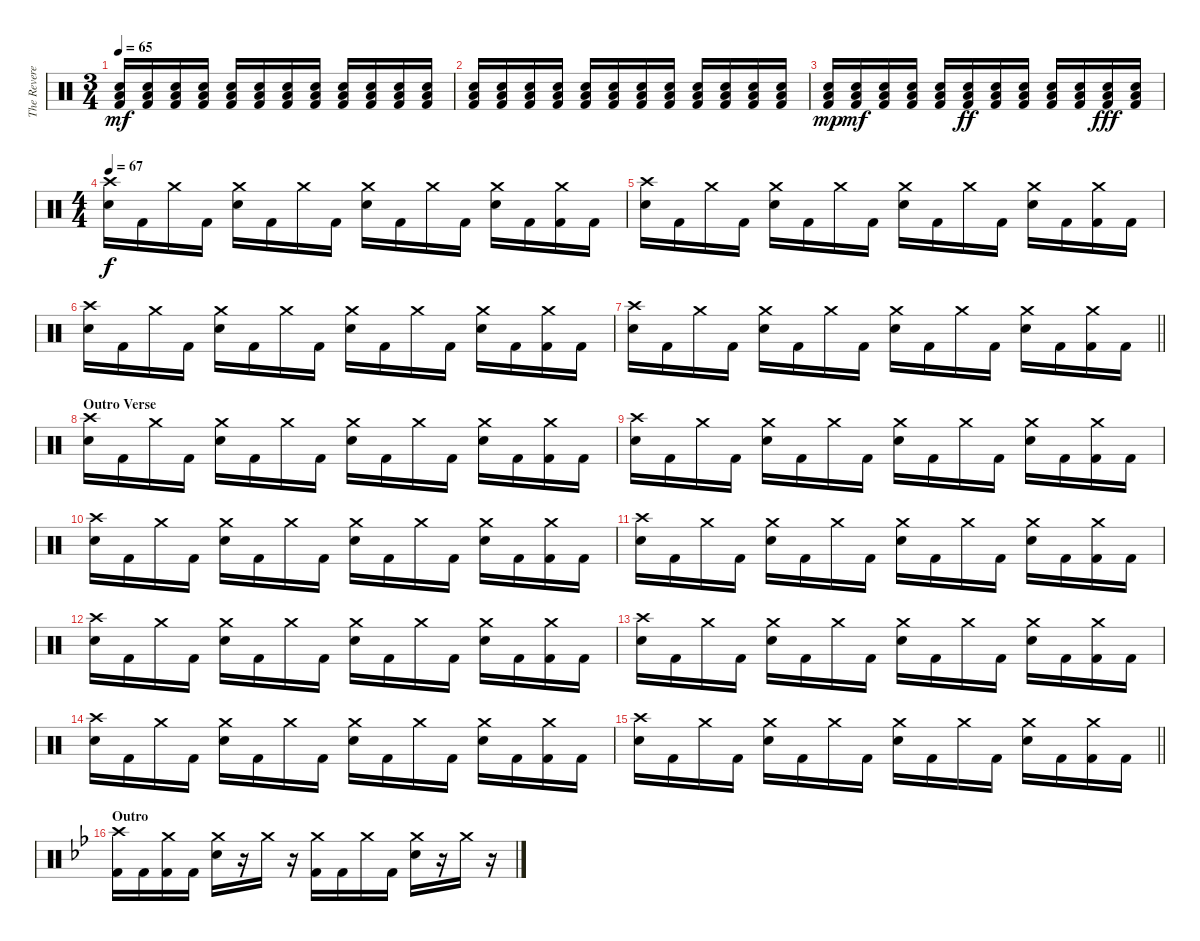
\track ("The Reverend" "The Revere") {instrument percussion}
\staff {score}
\articulation defaults
\ts (3 4)
\tempo 65
\clef neutral
\ks c
("Kick (hit) 2" "Electric Snare (hit)" "Low Tom (hit)").16{dy mf} ("Kick (hit) 2" "Electric Snare (hit)" "Low Tom (hit)").16 ("Kick (hit) 2" "Electric Snare (hit)" "Low Tom (hit)").16 ("Kick (hit) 2" "Electric Snare (hit)" "Low Tom (hit)").16 ("Kick (hit) 2" "Electric Snare (hit)" "Low Tom (hit)").16 ("Kick (hit) 2" "Electric Snare (hit)" "Low Tom (hit)").16 ("Kick (hit) 2" "Electric Snare (hit)" "Low Tom (hit)").16 ("Kick (hit) 2" "Electric Snare (hit)" "Low Tom (hit)").16 ("Kick (hit) 2" "Electric Snare (hit)" "Low Tom (hit)").16 ("Kick (hit) 2" "Electric Snare (hit)" "Low Tom (hit)").16 ("Kick (hit) 2" "Electric Snare (hit)" "Low Tom (hit)").16 ("Kick (hit) 2" "Electric Snare (hit)" "Low Tom (hit)").16 |
("Kick (hit) 2" "Electric Snare (hit)" "Low Tom (hit)").16 ("Kick (hit) 2" "Electric Snare (hit)" "Low Tom (hit)").16 ("Kick (hit) 2" "Electric Snare (hit)" "Low Tom (hit)").16 ("Kick (hit) 2" "Electric Snare (hit)" "Low Tom (hit)").16 ("Kick (hit) 2" "Electric Snare (hit)" "Low Tom (hit)").16 ("Kick (hit) 2" "Electric Snare (hit)" "Low Tom (hit)").16 ("Kick (hit) 2" "Electric Snare (hit)" "Low Tom (hit)").16 ("Kick (hit) 2" "Electric Snare (hit)" "Low Tom (hit)").16 ("Kick (hit) 2" "Electric Snare (hit)" "Low Tom (hit)").16 ("Kick (hit) 2" "Electric Snare (hit)" "Low Tom (hit)").16 ("Kick (hit) 2" "Electric Snare (hit)" "Low Tom (hit)").16 ("Kick (hit) 2" "Electric Snare (hit)" "Low Tom (hit)").16 |
("Kick (hit) 2" "Electric Snare (hit)" "Low Tom (hit)").16{dy mp} ("Kick (hit) 2" "Electric Snare (hit)" "Low Tom (hit)").16{dy mf} ("Kick (hit) 2" "Electric Snare (hit)" "Low Tom (hit)").16 ("Kick (hit) 2" "Electric Snare (hit)" "Low Tom (hit)").16 ("Kick (hit) 2" "Electric Snare (hit)" "Low Tom (hit)").16 ("Kick (hit) 2" "Electric Snare (hit)" "Low Tom (hit)").16{dy ff} ("Kick (hit) 2" "Electric Snare (hit)" "Low Tom (hit)").16 ("Kick (hit) 2" "Electric Snare (hit)" "Low Tom (hit)").16 ("Kick (hit) 2" "Electric Snare (hit)" "Low Tom (hit)").16 ("Kick (hit) 2" "Electric Snare (hit)" "Low Tom (hit)").16 ("Kick (hit) 2" "Electric Snare (hit)" "Low Tom (hit)").16{dy fff} ("Kick (hit) 2" "Electric Snare (hit)" "Low Tom (hit)").16 |
\ts (4 4)
\tempo 67
("Crash high (hit)" "Electric Snare (hit)").16{dy f} "Kick (hit) 2".16 "Crash medium (hit)".16 "Kick (hit) 2".16 ("Crash medium (hit)" "Electric Snare (hit)").16 "Kick (hit) 2".16 "Crash medium (hit)".16 "Kick (hit) 2".16 ("Crash medium (hit)" "Electric Snare (hit)").16 "Kick (hit) 2".16 "Crash medium (hit)".16 "Kick (hit) 2".16 ("Crash medium (hit)" "Electric Snare (hit)").16 "Kick (hit) 2".16 ("Crash medium (hit)" "Kick (hit) 2").16 "Kick (hit) 2".16 |
("Crash high (hit)" "Electric Snare (hit)").16 "Kick (hit) 2".16 "Crash medium (hit)".16 "Kick (hit) 2".16 ("Crash medium (hit)" "Electric Snare (hit)").16 "Kick (hit) 2".16 "Crash medium (hit)".16 "Kick (hit) 2".16 ("Crash medium (hit)" "Electric Snare (hit)").16 "Kick (hit) 2".16 "Crash medium (hit)".16 "Kick (hit) 2".16 ("Crash medium (hit)" "Electric Snare (hit)").16 "Kick (hit) 2".16 ("Crash medium (hit)" "Kick (hit) 2").16 "Kick (hit) 2".16 |
("Crash high (hit)" "Electric Snare (hit)").16 "Kick (hit) 2".16 "Crash medium (hit)".16 "Kick (hit) 2".16 ("Crash medium (hit)" "Electric Snare (hit)").16 "Kick (hit) 2".16 "Crash medium (hit)".16 "Kick (hit) 2".16 ("Crash medium (hit)" "Electric Snare (hit)").16 "Kick (hit) 2".16 "Crash medium (hit)".16 "Kick (hit) 2".16 ("Crash medium (hit)" "Electric Snare (hit)").16 "Kick (hit) 2".16 ("Crash medium (hit)" "Kick (hit) 2").16 "Kick (hit) 2".16 |
\barLineRight lightlight
("Crash high (hit)" "Electric Snare (hit)").16 "Kick (hit) 2".16 "Crash medium (hit)".16 "Kick (hit) 2".16 ("Crash medium (hit)" "Electric Snare (hit)").16 "Kick (hit) 2".16 "Crash medium (hit)".16 "Kick (hit) 2".16 ("Crash medium (hit)" "Electric Snare (hit)").16 "Kick (hit) 2".16 "Crash medium (hit)".16 "Kick (hit) 2".16 ("Crash medium (hit)" "Electric Snare (hit)").16 "Kick (hit) 2".16 ("Crash medium (hit)" "Kick (hit) 2").16 "Kick (hit) 2".16 |
\section ("" "Outro Verse")
("Crash high (hit)" "Electric Snare (hit)").16 "Kick (hit) 2".16 "Crash medium (hit)".16 "Kick (hit) 2".16 ("Crash medium (hit)" "Electric Snare (hit)").16 "Kick (hit) 2".16 "Crash medium (hit)".16 "Kick (hit) 2".16 ("Crash medium (hit)" "Electric Snare (hit)").16 "Kick (hit) 2".16 "Crash medium (hit)".16 "Kick (hit) 2".16 ("Crash medium (hit)" "Electric Snare (hit)").16 "Kick (hit) 2".16 ("Crash medium (hit)" "Kick (hit) 2").16 "Kick (hit) 2".16 |
("Crash high (hit)" "Electric Snare (hit)").16 "Kick (hit) 2".16 "Crash medium (hit)".16 "Kick (hit) 2".16 ("Crash medium (hit)" "Electric Snare (hit)").16 "Kick (hit) 2".16 "Crash medium (hit)".16 "Kick (hit) 2".16 ("Crash medium (hit)" "Electric Snare (hit)").16 "Kick (hit) 2".16 "Crash medium (hit)".16 "Kick (hit) 2".16 ("Crash medium (hit)" "Electric Snare (hit)").16 "Kick (hit) 2".16 ("Crash medium (hit)" "Kick (hit) 2").16 "Kick (hit) 2".16 |
("Crash high (hit)" "Electric Snare (hit)").16 "Kick (hit) 2".16 "Crash medium (hit)".16 "Kick (hit) 2".16 ("Crash medium (hit)" "Electric Snare (hit)").16 "Kick (hit) 2".16 "Crash medium (hit)".16 "Kick (hit) 2".16 ("Crash medium (hit)" "Electric Snare (hit)").16 "Kick (hit) 2".16 "Crash medium (hit)".16 "Kick (hit) 2".16 ("Crash medium (hit)" "Electric Snare (hit)").16 "Kick (hit) 2".16 ("Crash medium (hit)" "Kick (hit) 2").16 "Kick (hit) 2".16 |
("Crash high (hit)" "Electric Snare (hit)").16 "Kick (hit) 2".16 "Crash medium (hit)".16 "Kick (hit) 2".16 ("Crash medium (hit)" "Electric Snare (hit)").16 "Kick (hit) 2".16 "Crash medium (hit)".16 "Kick (hit) 2".16 ("Crash medium (hit)" "Electric Snare (hit)").16 "Kick (hit) 2".16 "Crash medium (hit)".16 "Kick (hit) 2".16 ("Crash medium (hit)" "Electric Snare (hit)").16 "Kick (hit) 2".16 ("Crash medium (hit)" "Kick (hit) 2").16 "Kick (hit) 2".16 |
("Crash high (hit)" "Electric Snare (hit)").16 "Kick (hit) 2".16 "Crash medium (hit)".16 "Kick (hit) 2".16 ("Crash medium (hit)" "Electric Snare (hit)").16 "Kick (hit) 2".16 "Crash medium (hit)".16 "Kick (hit) 2".16 ("Crash medium (hit)" "Electric Snare (hit)").16 "Kick (hit) 2".16 "Crash medium (hit)".16 "Kick (hit) 2".16 ("Crash medium (hit)" "Electric Snare (hit)").16 "Kick (hit) 2".16 ("Crash medium (hit)" "Kick (hit) 2").16 "Kick (hit) 2".16 |
("Crash high (hit)" "Electric Snare (hit)").16 "Kick (hit) 2".16 "Crash medium (hit)".16 "Kick (hit) 2".16 ("Crash medium (hit)" "Electric Snare (hit)").16 "Kick (hit) 2".16 "Crash medium (hit)".16 "Kick (hit) 2".16 ("Crash medium (hit)" "Electric Snare (hit)").16 "Kick (hit) 2".16 "Crash medium (hit)".16 "Kick (hit) 2".16 ("Crash medium (hit)" "Electric Snare (hit)").16 "Kick (hit) 2".16 ("Crash medium (hit)" "Kick (hit) 2").16 "Kick (hit) 2".16 |
("Crash high (hit)" "Electric Snare (hit)").16 "Kick (hit) 2".16 "Crash medium (hit)".16 "Kick (hit) 2".16 ("Crash medium (hit)" "Electric Snare (hit)").16 "Kick (hit) 2".16 "Crash medium (hit)".16 "Kick (hit) 2".16 ("Crash medium (hit)" "Electric Snare (hit)").16 "Kick (hit) 2".16 "Crash medium (hit)".16 "Kick (hit) 2".16 ("Crash medium (hit)" "Electric Snare (hit)").16 "Kick (hit) 2".16 ("Crash medium (hit)" "Kick (hit) 2").16 "Kick (hit) 2".16 |
\barLineRight lightlight
("Crash high (hit)" "Electric Snare (hit)").16 "Kick (hit) 2".16 "Crash medium (hit)".16 "Kick (hit) 2".16 ("Crash medium (hit)" "Electric Snare (hit)").16 "Kick (hit) 2".16 "Crash medium (hit)".16 "Kick (hit) 2".16 ("Crash medium (hit)" "Electric Snare (hit)").16 "Kick (hit) 2".16 "Crash medium (hit)".16 "Kick (hit) 2".16 ("Crash medium (hit)" "Electric Snare (hit)").16 "Kick (hit) 2".16 ("Crash medium (hit)" "Kick (hit) 2").16 "Kick (hit) 2".16 |
\section ("" "Outro")
\ks bb
("Crash high (hit)" "Kick (hit) 2").16 "Kick (hit) 2".16 ("Crash medium (hit)" "Kick (hit) 2").16 "Kick (hit) 2".16 ("Crash medium (hit)" "Electric Snare (hit)").16 r.16 "Crash medium (hit)".16 r.16 ("Crash medium (hit)" "Kick (hit) 2").16 "Kick (hit) 2".16 "Crash medium (hit)".16 "Kick (hit) 2".16 ("Crash medium (hit)" "Electric Snare (hit)").16 r.16 "Crash medium (hit)".16 r.16
